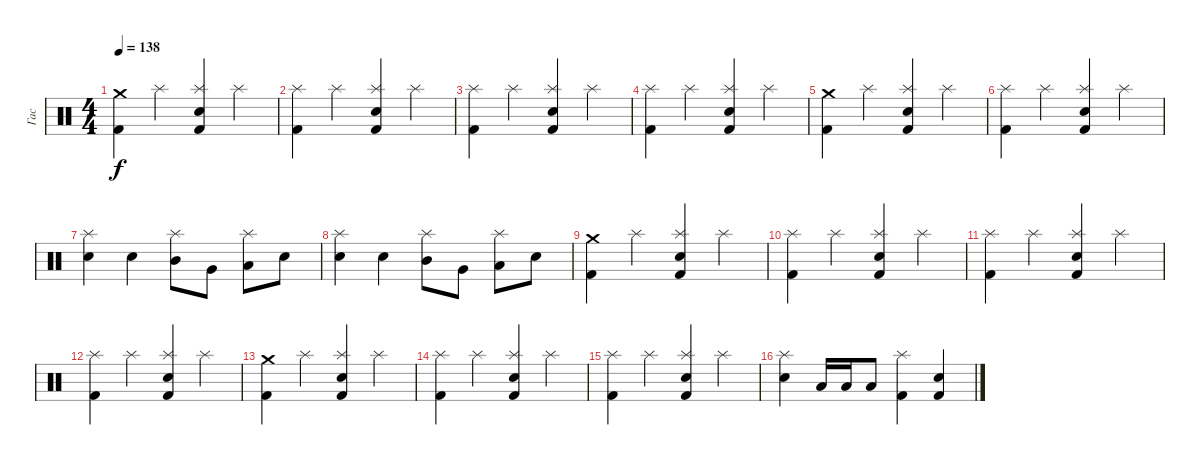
\track ("Гас" "Гас") {instrument percussion}
\staff {score}
\articulation defaults
\ts (4 4)
\tempo 138
\clef neutral
\ks c
("Crash medium (hit)" "Kick (hit) 2").4{dy f} "Splash (hit)".4 ("Splash (hit)" "Electric Snare (hit)" "Kick (hit) 2").4 "Splash (hit)".4 |
("Splash (hit)" "Kick (hit) 2").4 "Splash (hit)".4 ("Splash (hit)" "Electric Snare (hit)" "Kick (hit) 2").4 "Splash (hit)".4 |
("Splash (hit)" "Kick (hit) 2").4 "Splash (hit)".4 ("Splash (hit)" "Electric Snare (hit)" "Kick (hit) 2").4 "Splash (hit)".4 |
("Splash (hit)" "Kick (hit) 2").4 "Splash (hit)".4 ("Splash (hit)" "Electric Snare (hit)" "Kick (hit) 2").4 "Splash (hit)".4 |
("Crash medium (hit)" "Kick (hit) 2").4 "Splash (hit)".4 ("Splash (hit)" "Electric Snare (hit)" "Kick (hit) 2").4 "Splash (hit)".4 |
("Splash (hit)" "Kick (hit) 2").4 "Splash (hit)".4 ("Splash (hit)" "Electric Snare (hit)" "Kick (hit) 2").4 "Splash (hit)".4 |
("Electric Snare (hit)" "Splash (hit)").4 "Electric Snare (hit)".4 ("Mid Tom (hit)" "Splash (hit)").8 "Very Low Tom (hit)".8 ("Low Floor Tom (hit)" "Splash (hit)").8 "Electric Snare (hit)".8 |
("Electric Snare (hit)" "Splash (hit)").4 "Snare (hit) 2".4 ("Mid Tom (hit)" "Splash (hit)").8 "Very Low Tom (hit)".8 ("Low Floor Tom (hit)" "Splash (hit)").8 "Electric Snare (hit)".8 |
("Crash medium (hit)" "Kick (hit) 2").4 "Splash (hit)".4 ("Splash (hit)" "Electric Snare (hit)" "Kick (hit) 2").4 "Splash (hit)".4 |
("Splash (hit)" "Kick (hit) 2").4 "Splash (hit)".4 ("Splash (hit)" "Electric Snare (hit)" "Kick (hit) 2").4 "Splash (hit)".4 |
("Splash (hit)" "Kick (hit) 2").4 "Splash (hit)".4 ("Splash (hit)" "Electric Snare (hit)" "Kick (hit) 2").4 "Splash (hit)".4 |
("Splash (hit)" "Kick (hit) 2").4 "Splash (hit)".4 ("Splash (hit)" "Electric Snare (hit)" "Kick (hit) 2").4 "Splash (hit)".4 |
("Crash medium (hit)" "Kick (hit) 2").4 "Splash (hit)".4 ("Splash (hit)" "Electric Snare (hit)" "Kick (hit) 2").4 "Splash (hit)".4 |
("Splash (hit)" "Kick (hit) 2").4 "Splash (hit)".4 ("Splash (hit)" "Electric Snare (hit)" "Kick (hit) 2").4 "Splash (hit)".4 |
("Splash (hit)" "Kick (hit) 2").4 "Splash (hit)".4 ("Splash (hit)" "Electric Snare (hit)" "Kick (hit) 2").4 "Splash (hit)".4 |
("Splash (hit)" "Electric Snare (hit)").4 "Low Floor Tom (hit)".16 "Low Floor Tom (hit)".16 "Low Floor Tom (hit)".8 ("Splash (hit)" "Kick (hit) 2").4 ("Electric Snare (hit)" "Kick (hit) 2").4
